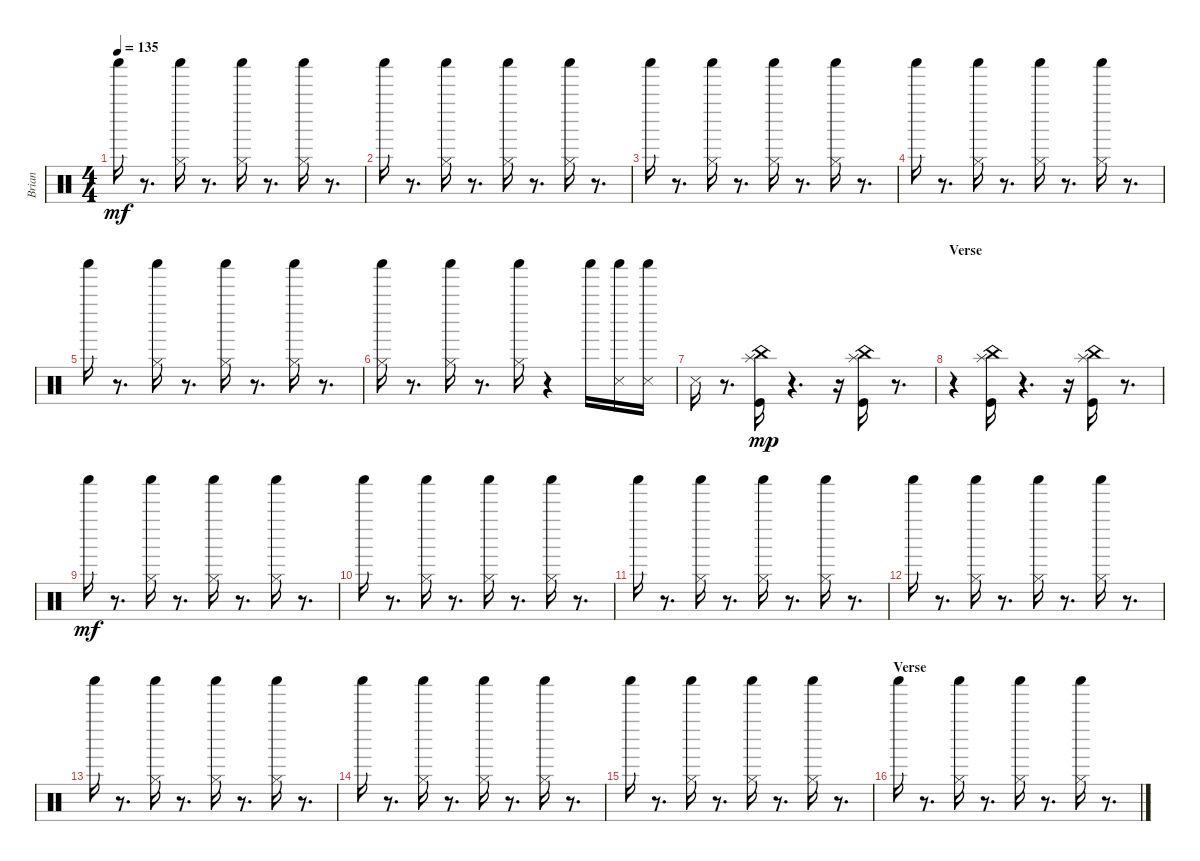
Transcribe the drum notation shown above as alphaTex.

\track ("Brian" "Brian") {instrument percussion}
\staff {score}
\articulation defaults
\ts (4 4)
\tempo 135
\clef neutral
\ks c "Shaker (hit)".16{dy mf}
r.8{d} ("Shaker (hit)" "Hi-Hat (closed)").16 r.8{d} ("Shaker (hit)" "Hi-Hat (closed)").16 r.8{d} ("Shaker (hit)" "Hi-Hat (closed)").16 r.8{d} |
"Shaker (hit)".16 r.8{d} ("Shaker (hit)" "Hi-Hat (closed)").16 r.8{d} ("Shaker (hit)" "Hi-Hat (closed)").16 r.8{d} ("Shaker (hit)" "Hi-Hat (closed)").16 r.8{d} |
"Shaker (hit)".16 r.8{d} ("Shaker (hit)" "Hi-Hat (closed)").16 r.8{d} ("Shaker (hit)" "Hi-Hat (closed)").16 r.8{d} ("Shaker (hit)" "Hi-Hat (closed)").16 r.8{d} |
"Shaker (hit)".16 r.8{d} ("Shaker (hit)" "Hi-Hat (closed)").16 r.8{d} ("Shaker (hit)" "Hi-Hat (closed)").16 r.8{d} ("Shaker (hit)" "Hi-Hat (closed)").16 r.8{d} |
"Shaker (hit)".16 r.8{d} ("Shaker (hit)" "Hi-Hat (closed)").16 r.8{d} ("Shaker (hit)" "Hi-Hat (closed)").16 r.8{d} ("Shaker (hit)" "Hi-Hat (closed)").16 r.8{d} |
("Shaker (hit)" "Hi-Hat (closed)").16 r.8{d} ("Shaker (hit)" "Hi-Hat (closed)").16 r.8{d} ("Shaker (hit)" "Hi-Hat (closed)").16 r.4 "Shaker (hit)".16 ("Snare (side stick) 3" "Shaker (hit)").16 ("Snare (side stick) 3" "Shaker (hit)").16 |
"Snare (side stick) 3".16 r.8{d} ("Splash (hit)" "Kick (hit)" "China (hit)").16{dy mp} r.4{d} r.16 ("Splash (hit)" "Kick (hit)" "China (hit)").16 r.8{d} |
\section ("" "Verse")
r.4 ("Splash (hit)" "Kick (hit)" "China (hit)").16 r.4{d} r.16 ("Splash (hit)" "Kick (hit)" "China (hit)").16 r.8{d} |
"Shaker (hit)".16{dy mf} r.8{d} ("Shaker (hit)" "Hi-Hat (closed)").16 r.8{d} ("Shaker (hit)" "Hi-Hat (closed)").16 r.8{d} ("Shaker (hit)" "Hi-Hat (closed)").16 r.8{d} |
"Shaker (hit)".16 r.8{d} ("Shaker (hit)" "Hi-Hat (closed)").16 r.8{d} ("Shaker (hit)" "Hi-Hat (closed)").16 r.8{d} ("Shaker (hit)" "Hi-Hat (closed)").16 r.8{d} |
"Shaker (hit)".16 r.8{d} ("Shaker (hit)" "Hi-Hat (closed)").16 r.8{d} ("Shaker (hit)" "Hi-Hat (closed)").16 r.8{d} ("Shaker (hit)" "Hi-Hat (closed)").16 r.8{d} |
"Shaker (hit)".16 r.8{d} ("Shaker (hit)" "Hi-Hat (closed)").16 r.8{d} ("Shaker (hit)" "Hi-Hat (closed)").16 r.8{d} ("Shaker (hit)" "Hi-Hat (closed)").16 r.8{d} |
"Shaker (hit)".16 r.8{d} ("Shaker (hit)" "Hi-Hat (closed)").16 r.8{d} ("Shaker (hit)" "Hi-Hat (closed)").16 r.8{d} ("Shaker (hit)" "Hi-Hat (closed)").16 r.8{d} |
"Shaker (hit)".16 r.8{d} ("Shaker (hit)" "Hi-Hat (closed)").16 r.8{d} ("Shaker (hit)" "Hi-Hat (closed)").16 r.8{d} ("Shaker (hit)" "Hi-Hat (closed)").16 r.8{d} |
"Shaker (hit)".16 r.8{d} ("Shaker (hit)" "Hi-Hat (closed)").16 r.8{d} ("Shaker (hit)" "Hi-Hat (closed)").16 r.8{d} ("Shaker (hit)" "Hi-Hat (closed)").16 r.8{d} |
\section ("" "Verse")
"Shaker (hit)".16 r.8{d} ("Shaker (hit)" "Hi-Hat (closed)").16 r.8{d} ("Shaker (hit)" "Hi-Hat (closed)").16 r.8{d} ("Shaker (hit)" "Hi-Hat (closed)").16 r.8{d}
